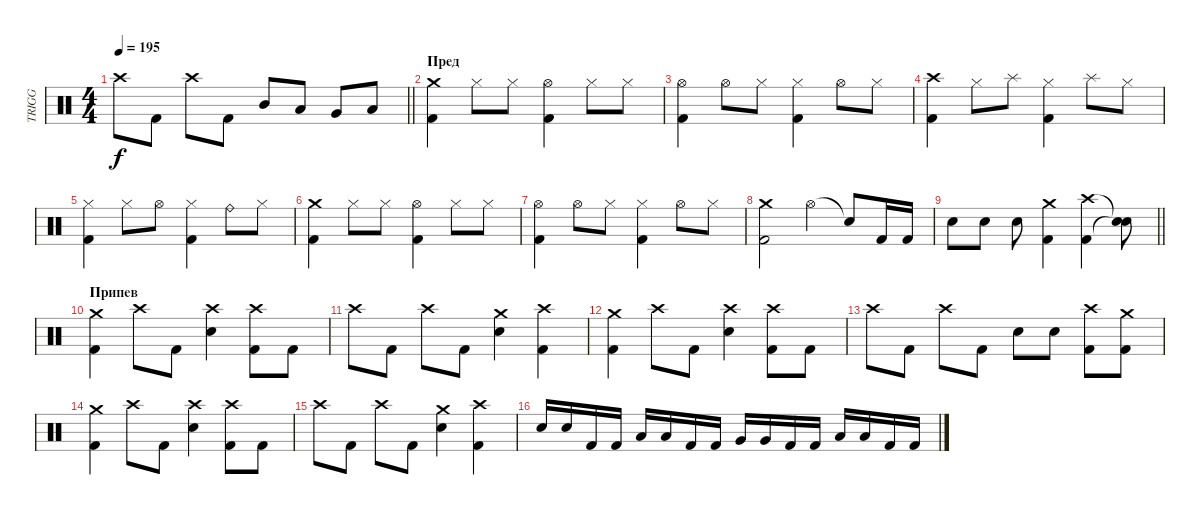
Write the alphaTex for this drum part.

\track ("TRIGG" "TRIGG") {instrument percussion}
\staff {score}
\articulation defaults
\ts (4 4)
\tempo 195
\clef neutral
\barLineRight lightlight
\ks c "Crash high (hit)".8{dy f} "Kick (hit) 2".8 "Crash high (hit)".8 "Kick (hit) 2".8 "Mid Tom (hit)".8 "Low Tom (hit)".8 "Very Low Tom (hit)".8 "Low Floor Tom (hit)".8
|
\section ("" "Пред")
("Crash medium (hit)" "Kick (hit) 2").4 "Hi-Hat (closed)".8 "Hi-Hat (closed)".8 ("Hi-Hat (open)" "Kick (hit) 2").4 "Hi-Hat (closed)".8 "Hi-Hat (closed)".8 |
("Hi-Hat (open)" "Kick (hit) 2").4 "Hi-Hat (open)".8 "Hi-Hat (closed)".8 ("Hi-Hat (closed)" "Kick (hit) 2").4 "Hi-Hat (open)".8 "Hi-Hat (closed)".8 |
("Crash high (hit)" "Kick (hit) 2").4 "Hi-Hat (closed)".8 "Splash (hit)".8 ("Hi-Hat (closed)" "Kick (hit) 2").4 "Splash (hit)".8 "Hi-Hat (closed)".8 |
("Hi-Hat (closed)" "Kick (hit) 2").4 "Hi-Hat (closed)".8 "Hi-Hat (open)".8 ("Hi-Hat (closed)" "Kick (hit) 2").4 "Ride (bell)".8 "Hi-Hat (closed)".8 |
("Crash medium (hit)" "Kick (hit) 2").4 "Hi-Hat (closed)".8 "Hi-Hat (closed)".8 ("Hi-Hat (open)" "Kick (hit) 2").4 "Hi-Hat (closed)".8 "Hi-Hat (closed)".8 |
("Hi-Hat (open)" "Kick (hit) 2").4 "Hi-Hat (open)".8 "Hi-Hat (closed)".8 ("Hi-Hat (closed)" "Kick (hit) 2").4 "Hi-Hat (open)".8 "Hi-Hat (closed)".8 |
("Crash medium (hit)" "Kick (hit) 2").2 "Hi-Hat (open)".4 "Snare (hit)"{t}.8 "Kick (hit) 2".16 "Kick (hit) 2".16 |
\barLineRight lightlight "Electric Snare (hit)".8 "Electric Snare (hit)".8 "Electric Snare (hit)".8
("Crash medium (hit)" "Kick (hit) 2").4 ("Crash high (hit)" "Kick (hit) 2").4 ("Snare (hit)"{t} "Snare (hit)"{t}).8 |
\section ("" "Припев")
("Crash medium (hit)" "Kick (hit) 2").4 "Crash high (hit)".8 "Kick (hit) 2".8 ("Crash high (hit)" "Electric Snare (hit)").4 ("Crash high (hit)" "Kick (hit) 2").8 "Kick (hit) 2".8 |
"Crash high (hit)".8 "Kick (hit) 2".8 "Crash high (hit)".8 "Kick (hit) 2".8 ("Crash medium (hit)" "Electric Snare (hit)").4 ("Crash high (hit)" "Kick (hit) 2").4 |
("Crash medium (hit)" "Kick (hit) 2").4 "Crash high (hit)".8 "Kick (hit) 2".8 ("Crash high (hit)" "Electric Snare (hit)").4 ("Crash high (hit)" "Kick (hit) 2").8 "Kick (hit) 2".8 |
"Crash high (hit)".8 "Kick (hit) 2".8 "Crash high (hit)".8 "Kick (hit) 2".8 "Electric Snare (hit)".8 "Electric Snare (hit)".8 ("Crash high (hit)" "Kick (hit) 2").8 ("Crash medium (hit)" "Kick (hit) 2").8 |
("Crash medium (hit)" "Kick (hit) 2").4 "Crash high (hit)".8 "Kick (hit) 2".8 ("Crash high (hit)" "Electric Snare (hit)").4 ("Crash high (hit)" "Kick (hit) 2").8 "Kick (hit) 2".8 |
"Crash high (hit)".8 "Kick (hit) 2".8 "Crash high (hit)".8 "Kick (hit) 2".8 ("Crash medium (hit)" "Electric Snare (hit)").4 ("Crash high (hit)" "Kick (hit) 2").4 |
"Electric Snare (hit)".16 "Electric Snare (hit)".16 "Kick (hit) 2".16 "Kick (hit) 2".16 "Low Tom (hit)".16 "Low Tom (hit)".16 "Kick (hit) 2".16 "Kick (hit) 2".16 "Very Low Tom (hit)".16 "Very Low Tom (hit)".16 "Kick (hit) 2".16 "Kick (hit) 2".16 "Low Floor Tom (hit)".16 "Low Floor Tom (hit)".16 "Kick (hit) 2".16 "Kick (hit) 2".16
